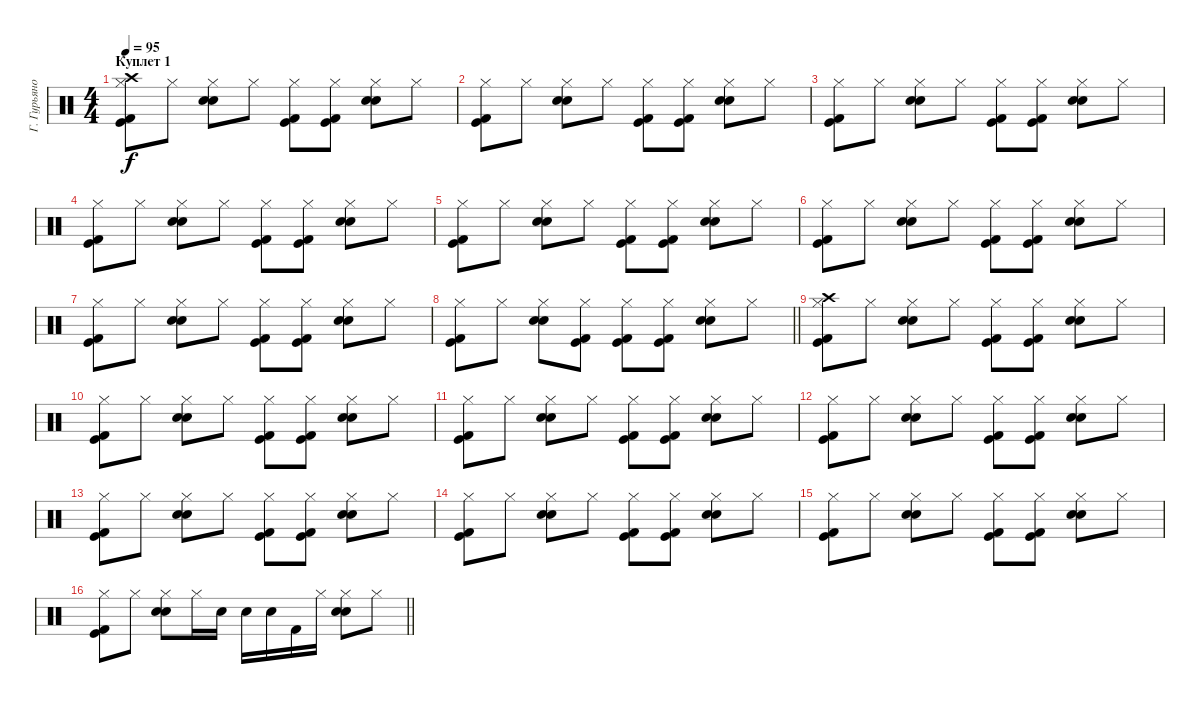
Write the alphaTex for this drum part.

\track ("Г. Гурьянов" "Г. Гурьяно") {instrument percussion}
\staff {score}
\articulation defaults
\ts (4 4)
\section ("" "Куплет 1")
\tempo 95
\clef neutral
\ks c
("Kick (hit) 2" "Kick (hit)" "Crash high (hit)" "Hi-Hat (closed)").8{dy f} "Hi-Hat (closed)".8 ("Electric Snare (hit)" "Snare (hit) 2" "Hi-Hat (closed)").8 "Hi-Hat (closed)".8 ("Kick (hit) 2" "Kick (hit)" "Hi-Hat (closed)").8 ("Kick (hit) 2" "Kick (hit)" "Hi-Hat (closed)").8 ("Electric Snare (hit)" "Snare (hit) 2" "Hi-Hat (closed)").8 "Hi-Hat (closed)".8 |
("Kick (hit) 2" "Kick (hit)" "Hi-Hat (closed)").8 "Hi-Hat (closed)".8 ("Electric Snare (hit)" "Snare (hit) 2" "Hi-Hat (closed)").8 "Hi-Hat (closed)".8 ("Kick (hit) 2" "Kick (hit)" "Hi-Hat (closed)").8 ("Kick (hit) 2" "Kick (hit)" "Hi-Hat (closed)").8 ("Electric Snare (hit)" "Snare (hit) 2" "Hi-Hat (closed)").8 "Hi-Hat (closed)".8 |
("Kick (hit) 2" "Kick (hit)" "Hi-Hat (closed)").8 "Hi-Hat (closed)".8 ("Electric Snare (hit)" "Snare (hit) 2" "Hi-Hat (closed)").8 "Hi-Hat (closed)".8 ("Kick (hit) 2" "Kick (hit)" "Hi-Hat (closed)").8 ("Kick (hit) 2" "Kick (hit)" "Hi-Hat (closed)").8 ("Electric Snare (hit)" "Snare (hit) 2" "Hi-Hat (closed)").8 "Hi-Hat (closed)".8 |
("Kick (hit) 2" "Kick (hit)" "Hi-Hat (closed)").8 "Hi-Hat (closed)".8 ("Electric Snare (hit)" "Snare (hit) 2" "Hi-Hat (closed)").8 "Hi-Hat (closed)".8 ("Kick (hit) 2" "Kick (hit)" "Hi-Hat (closed)").8 ("Kick (hit) 2" "Kick (hit)" "Hi-Hat (closed)").8 ("Electric Snare (hit)" "Snare (hit) 2" "Hi-Hat (closed)").8 "Hi-Hat (closed)".8 |
("Kick (hit) 2" "Kick (hit)" "Hi-Hat (closed)").8 "Hi-Hat (closed)".8 ("Electric Snare (hit)" "Snare (hit) 2" "Hi-Hat (closed)").8 "Hi-Hat (closed)".8 ("Kick (hit) 2" "Kick (hit)" "Hi-Hat (closed)").8 ("Kick (hit) 2" "Kick (hit)" "Hi-Hat (closed)").8 ("Electric Snare (hit)" "Snare (hit) 2" "Hi-Hat (closed)").8 "Hi-Hat (closed)".8 |
("Kick (hit) 2" "Kick (hit)" "Hi-Hat (closed)").8 "Hi-Hat (closed)".8 ("Electric Snare (hit)" "Snare (hit) 2" "Hi-Hat (closed)").8 "Hi-Hat (closed)".8 ("Kick (hit) 2" "Kick (hit)" "Hi-Hat (closed)").8 ("Kick (hit) 2" "Kick (hit)" "Hi-Hat (closed)").8 ("Electric Snare (hit)" "Snare (hit) 2" "Hi-Hat (closed)").8 "Hi-Hat (closed)".8 |
("Kick (hit) 2" "Kick (hit)" "Hi-Hat (closed)").8 "Hi-Hat (closed)".8 ("Electric Snare (hit)" "Snare (hit) 2" "Hi-Hat (closed)").8 "Hi-Hat (closed)".8 ("Kick (hit) 2" "Kick (hit)" "Hi-Hat (closed)").8 ("Kick (hit) 2" "Kick (hit)" "Hi-Hat (closed)").8 ("Electric Snare (hit)" "Snare (hit) 2" "Hi-Hat (closed)").8 "Hi-Hat (closed)".8 |
\barLineRight lightlight
("Kick (hit) 2" "Kick (hit)" "Hi-Hat (closed)").8 "Hi-Hat (closed)".8 ("Electric Snare (hit)" "Snare (hit) 2" "Hi-Hat (closed)").8 ("Kick (hit) 2" "Kick (hit)" "Hi-Hat (closed)").8 ("Kick (hit) 2" "Kick (hit)" "Hi-Hat (closed)").8 ("Kick (hit) 2" "Kick (hit)" "Hi-Hat (closed)").8 ("Electric Snare (hit)" "Snare (hit) 2" "Hi-Hat (closed)").8 "Hi-Hat (closed)".8 |
("Kick (hit) 2" "Kick (hit)" "Crash high (hit)" "Hi-Hat (closed)").8 "Hi-Hat (closed)".8 ("Electric Snare (hit)" "Snare (hit) 2" "Hi-Hat (closed)").8 "Hi-Hat (closed)".8 ("Kick (hit) 2" "Kick (hit)" "Hi-Hat (closed)").8 ("Kick (hit) 2" "Kick (hit)" "Hi-Hat (closed)").8 ("Electric Snare (hit)" "Snare (hit) 2" "Hi-Hat (closed)").8 "Hi-Hat (closed)".8 |
("Kick (hit) 2" "Kick (hit)" "Hi-Hat (closed)").8 "Hi-Hat (closed)".8 ("Electric Snare (hit)" "Snare (hit) 2" "Hi-Hat (closed)").8 "Hi-Hat (closed)".8 ("Kick (hit) 2" "Kick (hit)" "Hi-Hat (closed)").8 ("Kick (hit) 2" "Kick (hit)" "Hi-Hat (closed)").8 ("Electric Snare (hit)" "Snare (hit) 2" "Hi-Hat (closed)").8 "Hi-Hat (closed)".8 |
("Kick (hit) 2" "Kick (hit)" "Hi-Hat (closed)").8 "Hi-Hat (closed)".8 ("Electric Snare (hit)" "Snare (hit) 2" "Hi-Hat (closed)").8 "Hi-Hat (closed)".8 ("Kick (hit) 2" "Kick (hit)" "Hi-Hat (closed)").8 ("Kick (hit) 2" "Kick (hit)" "Hi-Hat (closed)").8 ("Electric Snare (hit)" "Snare (hit) 2" "Hi-Hat (closed)").8 "Hi-Hat (closed)".8 |
("Kick (hit) 2" "Kick (hit)" "Hi-Hat (closed)").8 "Hi-Hat (closed)".8 ("Electric Snare (hit)" "Snare (hit) 2" "Hi-Hat (closed)").8 "Hi-Hat (closed)".8 ("Kick (hit) 2" "Kick (hit)" "Hi-Hat (closed)").8 ("Kick (hit) 2" "Kick (hit)" "Hi-Hat (closed)").8 ("Electric Snare (hit)" "Snare (hit) 2" "Hi-Hat (closed)").8 "Hi-Hat (closed)".8 |
("Kick (hit) 2" "Kick (hit)" "Hi-Hat (closed)").8 "Hi-Hat (closed)".8 ("Electric Snare (hit)" "Snare (hit) 2" "Hi-Hat (closed)").8 "Hi-Hat (closed)".8 ("Kick (hit) 2" "Kick (hit)" "Hi-Hat (closed)").8 ("Kick (hit) 2" "Kick (hit)" "Hi-Hat (closed)").8 ("Electric Snare (hit)" "Snare (hit) 2" "Hi-Hat (closed)").8 "Hi-Hat (closed)".8 |
("Kick (hit) 2" "Kick (hit)" "Hi-Hat (closed)").8 "Hi-Hat (closed)".8 ("Electric Snare (hit)" "Snare (hit) 2" "Hi-Hat (closed)").8 "Hi-Hat (closed)".8 ("Kick (hit) 2" "Kick (hit)" "Hi-Hat (closed)").8 ("Kick (hit) 2" "Kick (hit)" "Hi-Hat (closed)").8 ("Electric Snare (hit)" "Snare (hit) 2" "Hi-Hat (closed)").8 "Hi-Hat (closed)".8 |
("Kick (hit) 2" "Kick (hit)" "Hi-Hat (closed)").8 "Hi-Hat (closed)".8 ("Electric Snare (hit)" "Snare (hit) 2" "Hi-Hat (closed)").8 "Hi-Hat (closed)".8 ("Kick (hit) 2" "Kick (hit)" "Hi-Hat (closed)").8 ("Kick (hit) 2" "Kick (hit)" "Hi-Hat (closed)").8 ("Electric Snare (hit)" "Snare (hit) 2" "Hi-Hat (closed)").8 "Hi-Hat (closed)".8 |
\barLineRight lightlight
("Kick (hit) 2" "Kick (hit)" "Hi-Hat (closed)").8 "Hi-Hat (closed)".8 ("Electric Snare (hit)" "Snare (hit) 2" "Hi-Hat (closed)").8 "Hi-Hat (closed)".16 "Electric Snare (hit)".16 "Electric Snare (hit)".16 "Electric Snare (hit)".16 "Kick (hit) 2".16 "Hi-Hat (closed)".16 ("Electric Snare (hit)" "Snare (hit) 2" "Hi-Hat (closed)").8 "Hi-Hat (closed)".8
